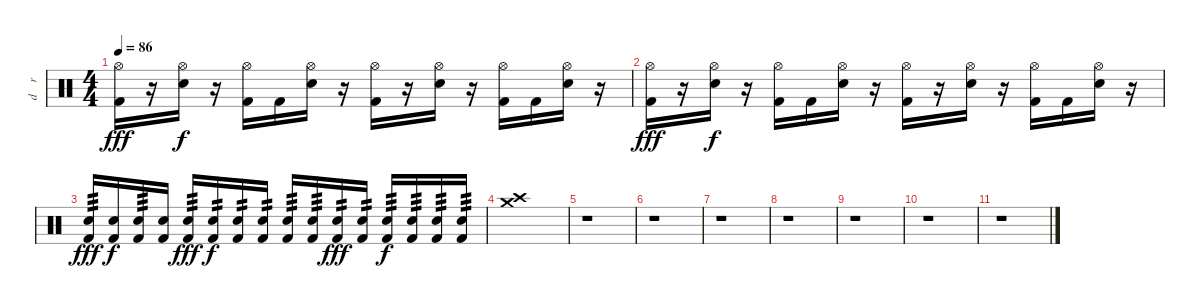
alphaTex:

\track ("d    r     u    m    s" "d    r    ") {instrument percussion}
\staff {score}
\articulation defaults
\ts (4 4)
\tempo 86
\clef neutral
\ks c
("Hi-Hat (open)" "Kick (hit) 2").16{dy fff} r.16 ("Hi-Hat (open)" "Electric Snare (hit)").16{dy f} r.16 ("Hi-Hat (open)" "Kick (hit) 2").16 "Kick (hit) 2".16 ("Hi-Hat (open)" "Electric Snare (hit)").16 r.16 ("Hi-Hat (open)" "Kick (hit) 2").16 r.16 ("Hi-Hat (open)" "Electric Snare (hit)").16 r.16 ("Hi-Hat (open)" "Kick (hit) 2").16 "Kick (hit) 2".16 ("Hi-Hat (open)" "Electric Snare (hit)").16 r.16 |
("Hi-Hat (open)" "Kick (hit) 2").16{dy fff} r.16 ("Hi-Hat (open)" "Electric Snare (hit)").16{dy f} r.16 ("Hi-Hat (open)" "Kick (hit) 2").16 "Kick (hit) 2".16 ("Hi-Hat (open)" "Electric Snare (hit)").16 r.16 ("Hi-Hat (open)" "Kick (hit) 2").16 r.16 ("Hi-Hat (open)" "Electric Snare (hit)").16 r.16 ("Hi-Hat (open)" "Kick (hit) 2").16 "Kick (hit) 2".16 ("Hi-Hat (open)" "Electric Snare (hit)").16 r.16 |
("Electric Snare (hit)" "Kick (hit) 2").16{tp 3 dy fff} ("Electric Snare (hit)" "Kick (hit) 2").16{dy f} ("Electric Snare (hit)" "Kick (hit) 2").16{tp 3} ("Electric Snare (hit)" "Kick (hit) 2").16 ("Electric Snare (hit)" "Kick (hit) 2").16{tp 3 dy fff} ("Electric Snare (hit)" "Kick (hit) 2").16{tp 2 dy f} ("Electric Snare (hit)" "Kick (hit) 2").16{tp 2} ("Electric Snare (hit)" "Kick (hit) 2").16{tp 2} ("Electric Snare (hit)" "Kick (hit) 2").16{tp 3} ("Electric Snare (hit)" "Kick (hit) 2").16{tp 3} ("Electric Snare (hit)" "Kick (hit) 2").16{tp 2 dy fff} ("Electric Snare (hit)" "Kick (hit) 2").16{tp 2} ("Electric Snare (hit)" "Kick (hit) 2").16{tp 3 dy f} ("Electric Snare (hit)" "Kick (hit) 2").16{tp 3} ("Electric Snare (hit)" "Kick (hit) 2").16{tp 3} ("Electric Snare (hit)" "Kick (hit) 2").16{tp 3} |
("Crash high (hit)" "Crash medium (hit)").1 |
r.1 |
r.1 |
r.1 |
r.1 |
r.1 |
r.1 |
r.1
